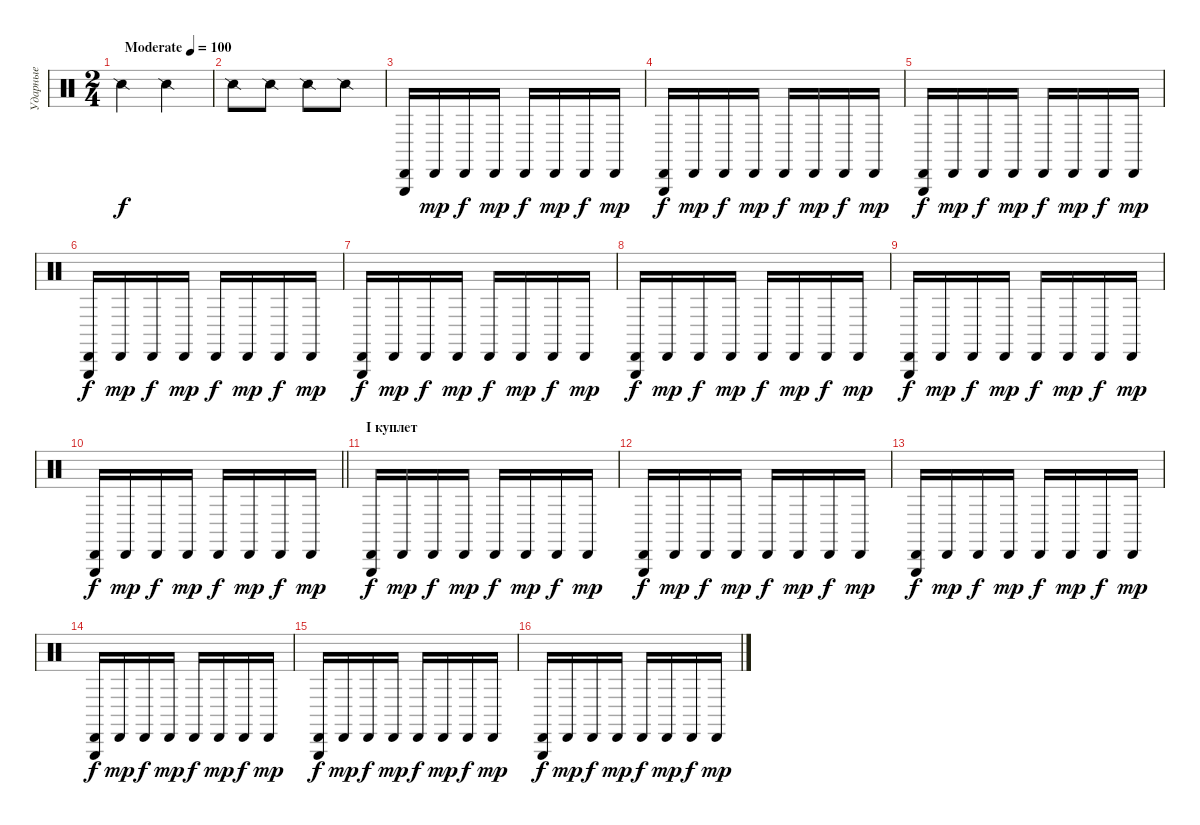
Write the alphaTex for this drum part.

\track ("Ударные" "Ударные") {instrument percussion}
\staff {score}
\articulation defaults
\ts (2 4)
\tempo (100 "Moderate")
\clef neutral
\ks c "Snare (side stick) 2".4{dy f} "Snare (side stick) 2".4
|
"Snare (side stick) 2".8 "Snare (side stick) 2".8 "Snare (side stick) 2".8 "Snare (side stick) 2".8 |
("Triangle (hit)" "Cabasa (hit)").16 "Cabasa (hit)".16{dy mp} "Cabasa (hit)".16{dy f} "Cabasa (hit)".16{dy mp} "Cabasa (hit)".16{dy f} "Cabasa (hit)".16{dy mp} "Cabasa (hit)".16{dy f} "Cabasa (hit)".16{dy mp} |
("Triangle (hit)" "Cabasa (hit)").16{dy f} "Cabasa (hit)".16{dy mp} "Cabasa (hit)".16{dy f} "Cabasa (hit)".16{dy mp} "Cabasa (hit)".16{dy f} "Cabasa (hit)".16{dy mp} "Cabasa (hit)".16{dy f} "Cabasa (hit)".16{dy mp} |
("Triangle (hit)" "Cabasa (hit)").16{dy f} "Cabasa (hit)".16{dy mp} "Cabasa (hit)".16{dy f} "Cabasa (hit)".16{dy mp} "Cabasa (hit)".16{dy f} "Cabasa (hit)".16{dy mp} "Cabasa (hit)".16{dy f} "Cabasa (hit)".16{dy mp} |
("Triangle (hit)" "Cabasa (hit)").16{dy f} "Cabasa (hit)".16{dy mp} "Cabasa (hit)".16{dy f} "Cabasa (hit)".16{dy mp} "Cabasa (hit)".16{dy f} "Cabasa (hit)".16{dy mp} "Cabasa (hit)".16{dy f} "Cabasa (hit)".16{dy mp} |
("Triangle (hit)" "Cabasa (hit)").16{dy f} "Cabasa (hit)".16{dy mp} "Cabasa (hit)".16{dy f} "Cabasa (hit)".16{dy mp} "Cabasa (hit)".16{dy f} "Cabasa (hit)".16{dy mp} "Cabasa (hit)".16{dy f} "Cabasa (hit)".16{dy mp} |
("Triangle (hit)" "Cabasa (hit)").16{dy f} "Cabasa (hit)".16{dy mp} "Cabasa (hit)".16{dy f} "Cabasa (hit)".16{dy mp} "Cabasa (hit)".16{dy f} "Cabasa (hit)".16{dy mp} "Cabasa (hit)".16{dy f} "Cabasa (hit)".16{dy mp} |
("Triangle (hit)" "Cabasa (hit)").16{dy f} "Cabasa (hit)".16{dy mp} "Cabasa (hit)".16{dy f} "Cabasa (hit)".16{dy mp} "Cabasa (hit)".16{dy f} "Cabasa (hit)".16{dy mp} "Cabasa (hit)".16{dy f} "Cabasa (hit)".16{dy mp} |
\barLineRight lightlight
("Triangle (hit)" "Cabasa (hit)").16{dy f} "Cabasa (hit)".16{dy mp} "Cabasa (hit)".16{dy f} "Cabasa (hit)".16{dy mp} "Cabasa (hit)".16{dy f} "Cabasa (hit)".16{dy mp} "Cabasa (hit)".16{dy f} "Cabasa (hit)".16{dy mp} |
\section ("" "I куплет")
("Triangle (hit)" "Cabasa (hit)").16{dy f} "Cabasa (hit)".16{dy mp} "Cabasa (hit)".16{dy f} "Cabasa (hit)".16{dy mp} "Cabasa (hit)".16{dy f} "Cabasa (hit)".16{dy mp} "Cabasa (hit)".16{dy f} "Cabasa (hit)".16{dy mp} |
("Triangle (hit)" "Cabasa (hit)").16{dy f} "Cabasa (hit)".16{dy mp} "Cabasa (hit)".16{dy f} "Cabasa (hit)".16{dy mp} "Cabasa (hit)".16{dy f} "Cabasa (hit)".16{dy mp} "Cabasa (hit)".16{dy f} "Cabasa (hit)".16{dy mp} |
("Triangle (hit)" "Cabasa (hit)").16{dy f} "Cabasa (hit)".16{dy mp} "Cabasa (hit)".16{dy f} "Cabasa (hit)".16{dy mp} "Cabasa (hit)".16{dy f} "Cabasa (hit)".16{dy mp} "Cabasa (hit)".16{dy f} "Cabasa (hit)".16{dy mp} |
("Triangle (hit)" "Cabasa (hit)").16{dy f} "Cabasa (hit)".16{dy mp} "Cabasa (hit)".16{dy f} "Cabasa (hit)".16{dy mp} "Cabasa (hit)".16{dy f} "Cabasa (hit)".16{dy mp} "Cabasa (hit)".16{dy f} "Cabasa (hit)".16{dy mp} |
("Triangle (hit)" "Cabasa (hit)").16{dy f} "Cabasa (hit)".16{dy mp} "Cabasa (hit)".16{dy f} "Cabasa (hit)".16{dy mp} "Cabasa (hit)".16{dy f} "Cabasa (hit)".16{dy mp} "Cabasa (hit)".16{dy f} "Cabasa (hit)".16{dy mp} |
("Triangle (hit)" "Cabasa (hit)").16{dy f} "Cabasa (hit)".16{dy mp} "Cabasa (hit)".16{dy f} "Cabasa (hit)".16{dy mp} "Cabasa (hit)".16{dy f} "Cabasa (hit)".16{dy mp} "Cabasa (hit)".16{dy f} "Cabasa (hit)".16{dy mp}
